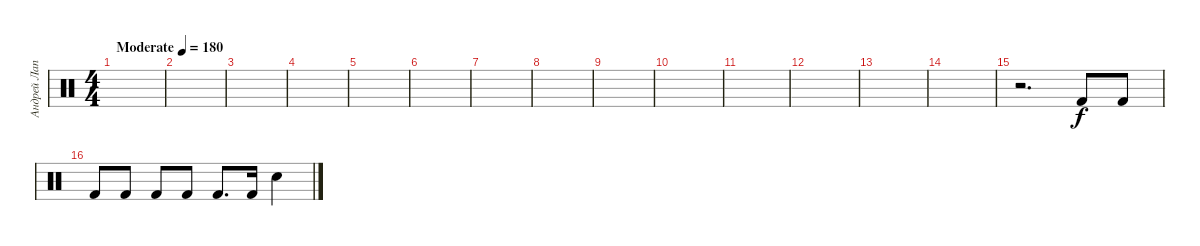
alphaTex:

\track ("Андрей Лаптев" "Андрей Лап") {instrument percussion}
\staff {score}
\articulation defaults
\ts (4 4)
\tempo (180 "Moderate")
\clef neutral
\ks c
|
|
|
|
|
|
|
|
|
|
|
|
|
|
r.2{d} "Kick (hit) 2".8 "Kick (hit) 2".8 |
"Kick (hit) 2".8 "Kick (hit) 2".8 "Kick (hit) 2".8 "Kick (hit) 2".8 "Kick (hit) 2".8{d} "Kick (hit) 2".16 "Snare (hit) 2".4
